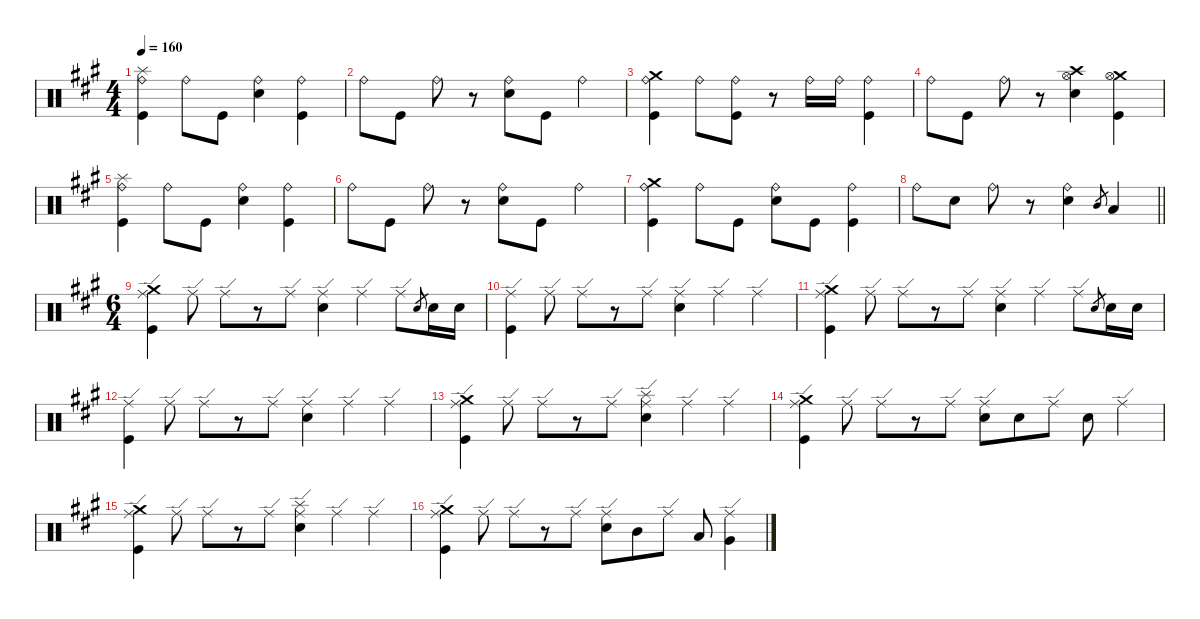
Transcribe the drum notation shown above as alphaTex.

\defaultSystemsLayout 4
\hideDynamics
\bracketExtendMode nobrackets
\singleTrackTrackNamePolicy hidden
\multiTrackTrackNamePolicy hidden
\firstSystemTrackNameMode fullname
\firstSystemTrackNameOrientation horizontal
\otherSystemsTrackNameOrientation horizontal
\track ("Drums" "drm.") {instrument percussion}
\staff {score}
\articulation defaults
\ts (4 4)
\tempo 160
\clef neutral
\ks f#minor
("Splash (hit)"{acc forcenatural} "Ride (bell)"{acc forcenatural} "Kick (hit)"{acc forcenatural}).4{dy f beam Down} "Ride (bell)"{acc forcenatural}.8{beam Down} "Kick (hit)"{acc forcenatural}.8{dy mp beam Down} ("Ride (bell)"{acc forcenatural} "Snare (hit) 2"{acc forcenatural}).4{dy f beam Down} ("Ride (bell)"{acc forcenatural} "Kick (hit)"{acc forcenatural}).4{beam Down} |
"Ride (bell)"{acc forcenatural}.8{beam Down} "Kick (hit)"{acc forcenatural}.8{beam Down} "Ride (bell)"{acc forcenatural}.8{beam Down} r.8{beam Down} ("Ride (bell)"{acc forcenatural} "Snare (hit) 2"{acc forcenatural}).8{beam Down} "Kick (hit)"{acc forcenatural}.8{beam Down} "Ride (bell)"{acc forcenatural}.4{beam Down} |
("Crash medium (hit)"{acc forcenatural} "Ride (bell)"{acc forcenatural} "Kick (hit)"{acc forcenatural}).4{beam Down} "Ride (bell)"{acc forcenatural}.8{beam Down} ("Ride (bell)"{acc forcenatural} "Kick (hit)"{acc forcenatural}).8{beam Down} r.8{beam Down} "Ride (bell)"{acc forcenatural}.16{dy mf beam Down} "Ride (bell)"{acc forcenatural}.16{beam Down} ("Ride (bell)"{acc forcenatural} "Kick (hit)"{acc forcenatural}).4{dy f beam Down} |
"Ride (bell)"{acc forcenatural}.8{beam Down} "Kick (hit)"{acc forcenatural}.8{beam Down} "Ride (bell)"{acc forcenatural}.8{beam Down} r.8{beam Down} ("Crash high (hit)"{acc forcenatural} "Hi-Hat (open)"{acc forcenatural} "Snare (hit) 2"{acc forcenatural}).4{dy mf beam Down} ("Crash medium (hit)"{acc forcenatural} "Hi-Hat (open)"{acc forcenatural} "Kick (hit)"{acc forcenatural}).4{dy f beam Down} |
("Splash (hit)"{acc forcenatural} "Ride (bell)"{acc forcenatural} "Kick (hit)"{acc forcenatural}).4{beam Down} "Ride (bell)"{acc forcenatural}.8{beam Down} "Kick (hit)"{acc forcenatural}.8{dy mp beam Down} ("Ride (bell)"{acc forcenatural} "Snare (hit) 2"{acc forcenatural}).4{dy f beam Down} ("Ride (bell)"{acc forcenatural} "Kick (hit)"{acc forcenatural}).4{beam Down} |
"Ride (bell)"{acc forcenatural}.8{beam Down} "Kick (hit)"{acc forcenatural}.8{beam Down} "Ride (bell)"{acc forcenatural}.8{beam Down} r.8{beam Down} ("Ride (bell)"{acc forcenatural} "Snare (hit) 2"{acc forcenatural}).8{beam Down} "Kick (hit)"{acc forcenatural}.8{beam Down} "Ride (bell)"{acc forcenatural}.4{beam Down} |
("Crash medium (hit)"{acc forcenatural} "Ride (bell)"{acc forcenatural} "Kick (hit)"{acc forcenatural}).4{beam Down} "Ride (bell)"{acc forcenatural}.8{beam Down} "Kick (hit)"{acc forcenatural}.8{dy mp beam Down} ("Ride (bell)"{acc forcenatural} "Snare (hit) 2"{acc forcenatural}).8{dy f beam Down} "Kick (hit)"{acc forcenatural}.8{dy mf beam Down} ("Ride (bell)"{acc forcenatural} "Kick (hit)"{acc forcenatural}).4{dy f beam Down} |
\barLineRight lightlight "Ride (bell)"{acc forcenatural}.8{beam Down} "Snare (hit) 2"{acc forcenatural}.8{beam Down} "Ride (bell)"{acc forcenatural}.8{beam Down}
r.8{beam Down} ("Ride (bell)"{acc forcenatural} "Snare (hit) 2"{acc forcenatural}).4{beam Down} "Mid Tom (hit)"{acc forcenatural}.8{gr dy p beam Up} "Low Tom (hit)"{acc forcenatural}.4{dy f beam Up} |
\ts (6 4)
\beaming (8 3 3 3 3)
("Crash medium (hit)"{acc forcenatural} "Ride (edge)"{acc forcenatural} "Kick (hit)"{acc forcenatural}).4{beam Down} "Ride (edge)"{acc forcenatural}.8{dy mf beam Down} "Ride (edge)"{acc forcenatural}.8{dy f beam Down} r.8{beam Down} "Ride (edge)"{acc forcenatural}.8{dy mf beam Down} ("Ride (edge)"{acc forcenatural} "Snare (hit) 2"{acc forcenatural}).4{dy f beam Down} "Ride (edge)"{acc forcenatural}.4{beam Down} "Ride (edge)"{acc forcenatural}.8{beam Down} "Electric Snare (hit)"{acc forcenatural}.8{gr dy ppp beam Up} "Snare (hit) 2"{acc forcenatural}.16{dy p beam Down} "Snare (hit) 2"{acc forcenatural}.16{beam Down} |
("Ride (edge)"{acc forcenatural} "Kick (hit)"{acc forcenatural}).4{dy f beam Down} "Ride (edge)"{acc forcenatural}.8{dy mf beam Down} "Ride (edge)"{acc forcenatural}.8{dy f beam Down} r.8{beam Down} "Ride (edge)"{acc forcenatural}.8{dy mf beam Down} ("Ride (edge)"{acc forcenatural} "Snare (hit) 2"{acc forcenatural}).4{dy f beam Down} "Ride (edge)"{acc forcenatural}.4{beam Down} "Ride (edge)"{acc forcenatural}.4{beam Down} |
("Crash medium (hit)"{acc forcenatural} "Ride (edge)"{acc forcenatural} "Kick (hit)"{acc forcenatural}).4{beam Down} "Ride (edge)"{acc forcenatural}.8{dy mf beam Down} "Ride (edge)"{acc forcenatural}.8{dy f beam Down} r.8{beam Down} "Ride (edge)"{acc forcenatural}.8{dy mf beam Down} ("Ride (edge)"{acc forcenatural} "Snare (hit) 2"{acc forcenatural}).4{dy f beam Down} "Ride (edge)"{acc forcenatural}.4{beam Down} "Ride (edge)"{acc forcenatural}.8{beam Down} "Electric Snare (hit)"{acc forcenatural}.8{gr dy ppp beam Up} "Snare (hit) 2"{acc forcenatural}.16{dy p beam Down} "Snare (hit) 2"{acc forcenatural}.16{beam Down} |
("Ride (edge)"{acc forcenatural} "Kick (hit)"{acc forcenatural}).4{dy f beam Down} "Ride (edge)"{acc forcenatural}.8{dy mf beam Down} "Ride (edge)"{acc forcenatural}.8{dy f beam Down} r.8{beam Down} "Ride (edge)"{acc forcenatural}.8{dy mf beam Down} ("Ride (edge)"{acc forcenatural} "Snare (hit) 2"{acc forcenatural}).4{dy f beam Down} "Ride (edge)"{acc forcenatural}.4{beam Down} "Ride (edge)"{acc forcenatural}.4{beam Down} |
("Crash medium (hit)"{acc forcenatural} "Ride (edge)"{acc forcenatural} "Kick (hit)"{acc forcenatural}).4{beam Down} "Ride (edge)"{acc forcenatural}.8{dy mf beam Down} "Ride (edge)"{acc forcenatural}.8{dy f beam Down} r.8{beam Down} "Ride (edge)"{acc forcenatural}.8{dy mf beam Down} ("Splash (hit)"{acc forcenatural} "Ride (edge)"{acc forcenatural} "Snare (hit) 2"{acc forcenatural}).4{beam Down} "Ride (edge)"{acc forcenatural}.4{dy f beam Down} "Ride (edge)"{acc forcenatural}.4{beam Down} |
("Crash medium (hit)"{acc forcenatural} "Ride (edge)"{acc forcenatural} "Kick (hit)"{acc forcenatural}).4{beam Down} "Ride (edge)"{acc forcenatural}.8{dy mf beam Down} "Ride (edge)"{acc forcenatural}.8{dy f beam Down} r.8{beam Down} "Ride (edge)"{acc forcenatural}.8{dy mf beam Down} ("Ride (edge)"{acc forcenatural} "Snare (hit) 2"{acc forcenatural}).8{dy f beam Down} "Snare (hit) 2"{acc forcenatural}.8{dy mf beam Down} "Ride (edge)"{acc forcenatural}.8{dy f beam Down} "Snare (hit) 2"{acc forcenatural}.8{beam Down} "Ride (edge)"{acc forcenatural}.4{beam Down} |
("Crash medium (hit)"{acc forcenatural} "Ride (edge)"{acc forcenatural} "Kick (hit)"{acc forcenatural}).4{beam Down} "Ride (edge)"{acc forcenatural}.8{dy mf beam Down} "Ride (edge)"{acc forcenatural}.8{dy f beam Down} r.8{beam Down} "Ride (edge)"{acc forcenatural}.8{dy mf beam Down} ("Splash (hit)"{acc forcenatural} "Ride (edge)"{acc forcenatural} "Snare (hit) 2"{acc forcenatural}).4{beam Down} "Ride (edge)"{acc forcenatural}.4{dy f beam Down} "Ride (edge)"{acc forcenatural}.4{beam Down} |
("Crash medium (hit)"{acc forcenatural} "Ride (edge)"{acc forcenatural} "Kick (hit)"{acc forcenatural}).4{beam Down} "Ride (edge)"{acc forcenatural}.8{dy mf beam Down} "Ride (edge)"{acc forcenatural}.8{dy f beam Down} r.8{beam Down} "Ride (edge)"{acc forcenatural}.8{dy mf beam Down} ("Ride (edge)"{acc forcenatural} "Snare (hit) 2"{acc forcenatural}).8{dy f beam Down} "Mid Tom (hit)"{acc forcenatural}.8{dy mf beam Down} "Ride (edge)"{acc forcenatural}.8{dy f beam Down} "Low Tom (hit)"{acc forcenatural}.8{beam Up} ("Ride (edge)"{acc forcenatural} "Very Low Tom (hit)"{acc forcenatural}).4{beam Down}
